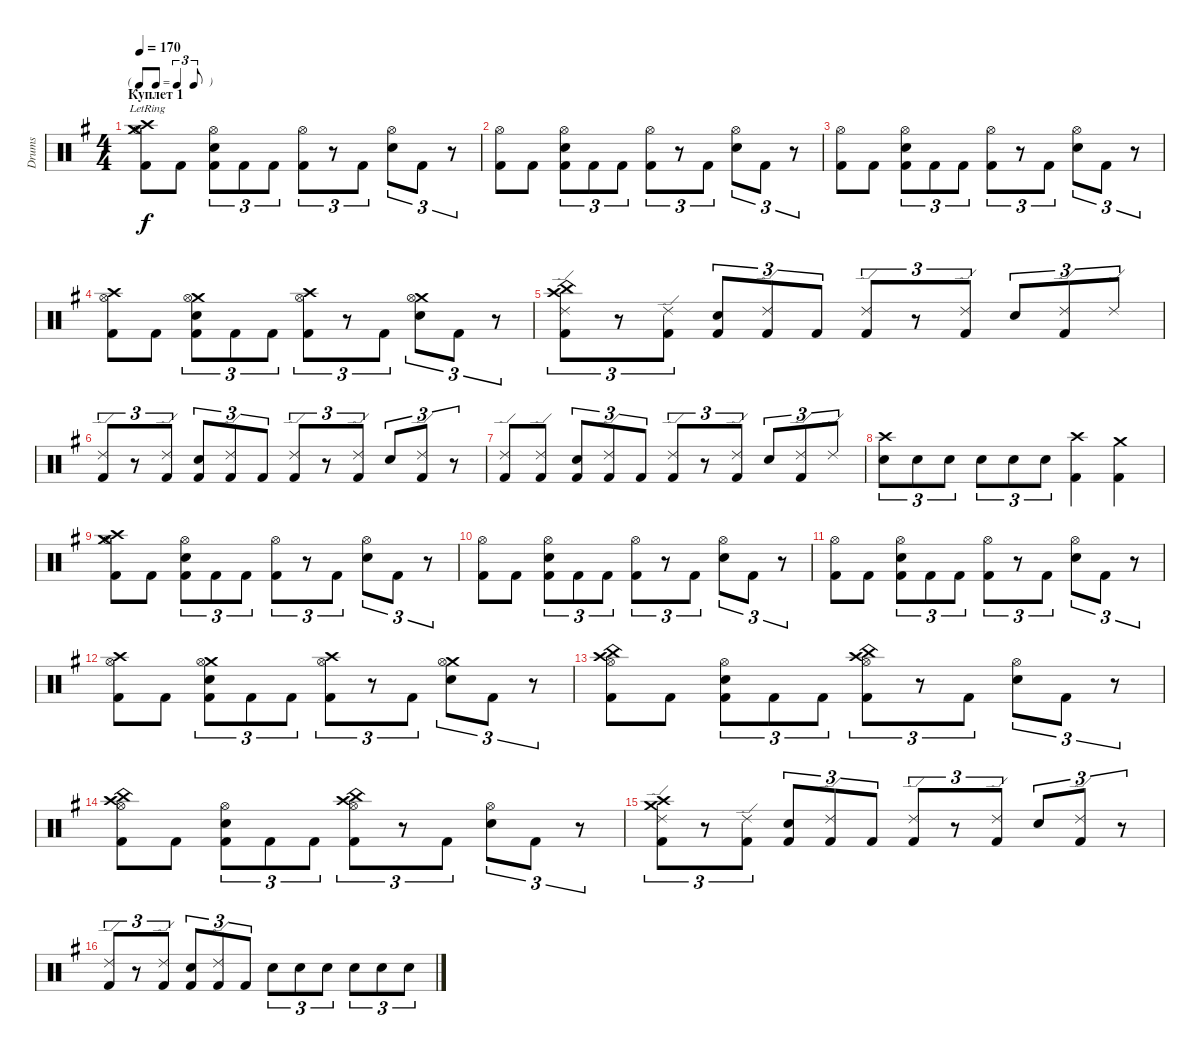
\track ("Drums" "Drums") {instrument percussion}
\staff {score}
\articulation defaults
\ts (4 4)
\tf triplet8th
\section ("" "Куплет 1")
\tempo 170
\clef neutral
\ks eminor
("Crash high (hit)"{lr} "Crash medium (hit)"{lr} "Hi-Hat (open)" "Kick (hit) 2").8{dy f} "Kick (hit) 2".8 ("Electric Snare (hit)" "Hi-Hat (open)" "Kick (hit) 2").8{tu (3 2)} "Kick (hit) 2".8{tu (3 2)} "Kick (hit) 2".8{tu (3 2)} ("Hi-Hat (open)" "Kick (hit) 2").8{tu (3 2)} r.8{tu (3 2)} "Kick (hit) 2".8{tu (3 2)} ("Electric Snare (hit)" "Hi-Hat (open)").8{tu (3 2)} "Kick (hit) 2".8{tu (3 2)} r.8{tu (3 2)} |
("Hi-Hat (open)" "Kick (hit) 2").8 "Kick (hit) 2".8 ("Electric Snare (hit)" "Hi-Hat (open)" "Kick (hit) 2").8{tu (3 2)} "Kick (hit) 2".8{tu (3 2)} "Kick (hit) 2".8{tu (3 2)} ("Hi-Hat (open)" "Kick (hit) 2").8{tu (3 2)} r.8{tu (3 2)} "Kick (hit) 2".8{tu (3 2)} ("Electric Snare (hit)" "Hi-Hat (open)").8{tu (3 2)} "Kick (hit) 2".8{tu (3 2)} r.8{tu (3 2)} |
("Hi-Hat (open)" "Kick (hit) 2").8 "Kick (hit) 2".8 ("Electric Snare (hit)" "Hi-Hat (open)" "Kick (hit) 2").8{tu (3 2)} "Kick (hit) 2".8{tu (3 2)} "Kick (hit) 2".8{tu (3 2)} ("Hi-Hat (open)" "Kick (hit) 2").8{tu (3 2)} r.8{tu (3 2)} "Kick (hit) 2".8{tu (3 2)} ("Electric Snare (hit)" "Hi-Hat (open)").8{tu (3 2)} "Kick (hit) 2".8{tu (3 2)} r.8{tu (3 2)} |
("Crash high (hit)" "Hi-Hat (open)" "Kick (hit) 2").8 "Kick (hit) 2".8 ("Crash medium (hit)" "Electric Snare (hit)" "Hi-Hat (open)" "Kick (hit) 2").8{tu (3 2)} "Kick (hit) 2".8{tu (3 2)} "Kick (hit) 2".8{tu (3 2)} ("Crash high (hit)" "Hi-Hat (open)" "Kick (hit) 2").8{tu (3 2)} r.8{tu (3 2)} "Kick (hit) 2".8{tu (3 2)} ("Crash medium (hit)" "Electric Snare (hit)" "Hi-Hat (open)").8{tu (3 2)} "Kick (hit) 2".8{tu (3 2)} r.8{tu (3 2)} |
("China (hit)" "Crash high (hit)" "Ride (edge) 2" "Kick (hit) 2").8{tu (3 2)} r.8{tu (3 2)} ("Ride (edge) 2" "Kick (hit) 2").8{tu (3 2)} ("Electric Snare (hit)" "Kick (hit) 2").8{tu (3 2)} ("Ride (edge) 2" "Kick (hit) 2").8{tu (3 2)} "Kick (hit) 2".8{tu (3 2)} ("Ride (edge) 2" "Kick (hit) 2").8{tu (3 2)} r.8{tu (3 2)} ("Ride (edge) 2" "Kick (hit) 2").8{tu (3 2)} "Electric Snare (hit)".8{tu (3 2)} ("Ride (edge) 2" "Kick (hit) 2").8{tu (3 2)} "Ride (edge) 2".8{tu (3 2)} |
("Ride (edge) 2" "Kick (hit) 2").8{tu (3 2)} r.8{tu (3 2)} ("Ride (edge) 2" "Kick (hit) 2").8{tu (3 2)} ("Electric Snare (hit)" "Kick (hit) 2").8{tu (3 2)} ("Ride (edge) 2" "Kick (hit) 2").8{tu (3 2)} "Kick (hit) 2".8{tu (3 2)} ("Ride (edge) 2" "Kick (hit) 2").8{tu (3 2)} r.8{tu (3 2)} ("Ride (edge) 2" "Kick (hit) 2").8{tu (3 2)} "Electric Snare (hit)".8{tu (3 2)} ("Ride (edge) 2" "Kick (hit) 2").8{tu (3 2)} r.8{tu (3 2)} |
("Ride (edge) 2" "Kick (hit) 2").8 ("Ride (edge) 2" "Kick (hit) 2").8 ("Electric Snare (hit)" "Kick (hit) 2").8{tu (3 2)} ("Ride (edge) 2" "Kick (hit) 2").8{tu (3 2)} "Kick (hit) 2".8{tu (3 2)} ("Ride (edge) 2" "Kick (hit) 2").8{tu (3 2)} r.8{tu (3 2)} ("Ride (edge) 2" "Kick (hit) 2").8{tu (3 2)} "Electric Snare (hit)".8{tu (3 2)} ("Ride (edge) 2" "Kick (hit) 2").8{tu (3 2)} "Ride (edge) 2".8{tu (3 2)} |
("Crash high (hit)" "Electric Snare (hit)").8{tu (3 2)} "Electric Snare (hit)".8{tu (3 2)} "Electric Snare (hit)".8{tu (3 2)} "Electric Snare (hit)".8{tu (3 2)} "Electric Snare (hit)".8{tu (3 2)} "Electric Snare (hit)".8{tu (3 2)} ("Crash high (hit)" "Kick (hit) 2").4 ("Crash medium (hit)" "Kick (hit) 2").4 |
("Crash high (hit)" "Crash medium (hit)" "Hi-Hat (open)" "Kick (hit) 2").8 "Kick (hit) 2".8 ("Electric Snare (hit)" "Hi-Hat (open)" "Kick (hit) 2").8{tu (3 2)} "Kick (hit) 2".8{tu (3 2)} "Kick (hit) 2".8{tu (3 2)} ("Hi-Hat (open)" "Kick (hit) 2").8{tu (3 2)} r.8{tu (3 2)} "Kick (hit) 2".8{tu (3 2)} ("Electric Snare (hit)" "Hi-Hat (open)").8{tu (3 2)} "Kick (hit) 2".8{tu (3 2)} r.8{tu (3 2)} |
("Hi-Hat (open)" "Kick (hit) 2").8 "Kick (hit) 2".8 ("Electric Snare (hit)" "Hi-Hat (open)" "Kick (hit) 2").8{tu (3 2)} "Kick (hit) 2".8{tu (3 2)} "Kick (hit) 2".8{tu (3 2)} ("Hi-Hat (open)" "Kick (hit) 2").8{tu (3 2)} r.8{tu (3 2)} "Kick (hit) 2".8{tu (3 2)} ("Electric Snare (hit)" "Hi-Hat (open)").8{tu (3 2)} "Kick (hit) 2".8{tu (3 2)} r.8{tu (3 2)} |
("Hi-Hat (open)" "Kick (hit) 2").8 "Kick (hit) 2".8 ("Electric Snare (hit)" "Hi-Hat (open)" "Kick (hit) 2").8{tu (3 2)} "Kick (hit) 2".8{tu (3 2)} "Kick (hit) 2".8{tu (3 2)} ("Hi-Hat (open)" "Kick (hit) 2").8{tu (3 2)} r.8{tu (3 2)} "Kick (hit) 2".8{tu (3 2)} ("Electric Snare (hit)" "Hi-Hat (open)").8{tu (3 2)} "Kick (hit) 2".8{tu (3 2)} r.8{tu (3 2)} |
("Crash high (hit)" "Hi-Hat (open)" "Kick (hit) 2").8 "Kick (hit) 2".8 ("Crash medium (hit)" "Electric Snare (hit)" "Hi-Hat (open)" "Kick (hit) 2").8{tu (3 2)} "Kick (hit) 2".8{tu (3 2)} "Kick (hit) 2".8{tu (3 2)} ("Crash high (hit)" "Hi-Hat (open)" "Kick (hit) 2").8{tu (3 2)} r.8{tu (3 2)} "Kick (hit) 2".8{tu (3 2)} ("Crash medium (hit)" "Electric Snare (hit)" "Hi-Hat (open)").8{tu (3 2)} "Kick (hit) 2".8{tu (3 2)} r.8{tu (3 2)} |
("Crash high (hit)" "China (hit)" "Hi-Hat (open)" "Kick (hit) 2").8 "Kick (hit) 2".8 ("Electric Snare (hit)" "Hi-Hat (open)" "Kick (hit) 2").8{tu (3 2)} "Kick (hit) 2".8{tu (3 2)} "Kick (hit) 2".8{tu (3 2)} ("Crash high (hit)" "China (hit)" "Hi-Hat (open)" "Kick (hit) 2").8{tu (3 2)} r.8{tu (3 2)} "Kick (hit) 2".8{tu (3 2)} ("Electric Snare (hit)" "Hi-Hat (open)").8{tu (3 2)} "Kick (hit) 2".8{tu (3 2)} r.8{tu (3 2)} |
("Crash high (hit)" "China (hit)" "Hi-Hat (open)" "Kick (hit) 2").8 "Kick (hit) 2".8 ("Electric Snare (hit)" "Hi-Hat (open)" "Kick (hit) 2").8{tu (3 2)} "Kick (hit) 2".8{tu (3 2)} "Kick (hit) 2".8{tu (3 2)} ("Crash high (hit)" "China (hit)" "Hi-Hat (open)" "Kick (hit) 2").8{tu (3 2)} r.8{tu (3 2)} "Kick (hit) 2".8{tu (3 2)} ("Electric Snare (hit)" "Hi-Hat (open)").8{tu (3 2)} "Kick (hit) 2".8{tu (3 2)} r.8{tu (3 2)} |
("Crash high (hit)" "Crash medium (hit)" "Ride (edge) 2" "Kick (hit) 2").8{tu (3 2)} r.8{tu (3 2)} ("Ride (edge) 2" "Kick (hit) 2").8{tu (3 2)} ("Electric Snare (hit)" "Kick (hit) 2").8{tu (3 2)} ("Ride (edge) 2" "Kick (hit) 2").8{tu (3 2)} "Kick (hit) 2".8{tu (3 2)} ("Ride (edge) 2" "Kick (hit) 2").8{tu (3 2)} r.8{tu (3 2)} ("Ride (edge) 2" "Kick (hit) 2").8{tu (3 2)} "Electric Snare (hit)".8{tu (3 2)} ("Ride (edge) 2" "Kick (hit) 2").8{tu (3 2)} r.8{tu (3 2)} |
("Ride (edge) 2" "Kick (hit) 2").8{tu (3 2)} r.8{tu (3 2)} ("Ride (edge) 2" "Kick (hit) 2").8{tu (3 2)} ("Electric Snare (hit)" "Kick (hit) 2").8{tu (3 2)} ("Ride (edge) 2" "Kick (hit) 2").8{tu (3 2)} "Kick (hit) 2".8{tu (3 2)} "Electric Snare (hit)".8{tu (3 2)} "Electric Snare (hit)".8{tu (3 2)} "Electric Snare (hit)".8{tu (3 2)} "Electric Snare (hit)".8{tu (3 2)} "Electric Snare (hit)".8{tu (3 2)} "Electric Snare (hit)".8{tu (3 2)}
